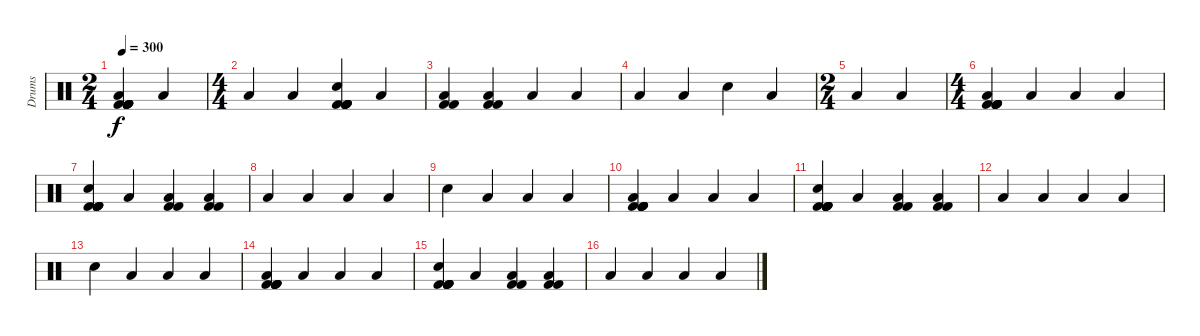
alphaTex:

\track ("Drums" "Drums") {instrument percussion}
\staff {score}
\articulation defaults
\ts (2 4)
\tempo 300
\clef neutral
\ks c
("Low Floor Tom (hit)" "Kick (hit) 2" "Kick (hit) 2" "Kick (hit) 2" "Kick (hit) 2" "Kick (hit) 2").4{dy f} "Low Floor Tom (hit)".4 |
\ts (4 4)
"Low Floor Tom (hit)".4 "Low Floor Tom (hit)".4 ("Electric Snare (hit)" "Kick (hit) 2" "Kick (hit) 2" "Kick (hit) 2" "Kick (hit) 2" "Kick (hit) 2").4 "Low Floor Tom (hit)".4 |
("Low Floor Tom (hit)" "Kick (hit) 2" "Kick (hit) 2").4 ("Low Floor Tom (hit)" "Kick (hit) 2" "Kick (hit) 2").4 "Low Floor Tom (hit)".4 "Low Floor Tom (hit)".4 |
"Low Floor Tom (hit)".4 "Low Floor Tom (hit)".4 "Electric Snare (hit)".4 "Low Floor Tom (hit)".4 |
\ts (2 4)
"Low Floor Tom (hit)".4 "Low Floor Tom (hit)".4 |
\ts (4 4)
("Low Floor Tom (hit)" "Kick (hit) 2" "Kick (hit) 2" "Kick (hit) 2" "Kick (hit) 2" "Kick (hit) 2").4 "Low Floor Tom (hit)".4 "Low Floor Tom (hit)".4 "Low Floor Tom (hit)".4 |
("Electric Snare (hit)" "Kick (hit) 2" "Kick (hit) 2" "Kick (hit) 2" "Kick (hit) 2" "Kick (hit) 2").4 "Low Floor Tom (hit)".4 ("Low Floor Tom (hit)" "Kick (hit) 2" "Kick (hit) 2").4 ("Low Floor Tom (hit)" "Kick (hit) 2" "Kick (hit) 2").4 |
"Low Floor Tom (hit)".4 "Low Floor Tom (hit)".4 "Low Floor Tom (hit)".4 "Low Floor Tom (hit)".4 |
"Electric Snare (hit)".4 "Low Floor Tom (hit)".4 "Low Floor Tom (hit)".4 "Low Floor Tom (hit)".4 |
("Low Floor Tom (hit)" "Kick (hit) 2" "Kick (hit) 2" "Kick (hit) 2" "Kick (hit) 2" "Kick (hit) 2").4 "Low Floor Tom (hit)".4 "Low Floor Tom (hit)".4 "Low Floor Tom (hit)".4 |
("Electric Snare (hit)" "Kick (hit) 2" "Kick (hit) 2" "Kick (hit) 2" "Kick (hit) 2" "Kick (hit) 2").4 "Low Floor Tom (hit)".4 ("Low Floor Tom (hit)" "Kick (hit) 2" "Kick (hit) 2").4 ("Low Floor Tom (hit)" "Kick (hit) 2" "Kick (hit) 2").4 |
"Low Floor Tom (hit)".4 "Low Floor Tom (hit)".4 "Low Floor Tom (hit)".4 "Low Floor Tom (hit)".4 |
"Electric Snare (hit)".4 "Low Floor Tom (hit)".4 "Low Floor Tom (hit)".4 "Low Floor Tom (hit)".4 |
("Low Floor Tom (hit)" "Kick (hit) 2" "Kick (hit) 2" "Kick (hit) 2" "Kick (hit) 2" "Kick (hit) 2").4 "Low Floor Tom (hit)".4 "Low Floor Tom (hit)".4 "Low Floor Tom (hit)".4 |
("Electric Snare (hit)" "Kick (hit) 2" "Kick (hit) 2" "Kick (hit) 2" "Kick (hit) 2" "Kick (hit) 2").4 "Low Floor Tom (hit)".4 ("Low Floor Tom (hit)" "Kick (hit) 2" "Kick (hit) 2").4 ("Low Floor Tom (hit)" "Kick (hit) 2" "Kick (hit) 2").4 |
"Low Floor Tom (hit)".4 "Low Floor Tom (hit)".4 "Low Floor Tom (hit)".4 "Low Floor Tom (hit)".4
